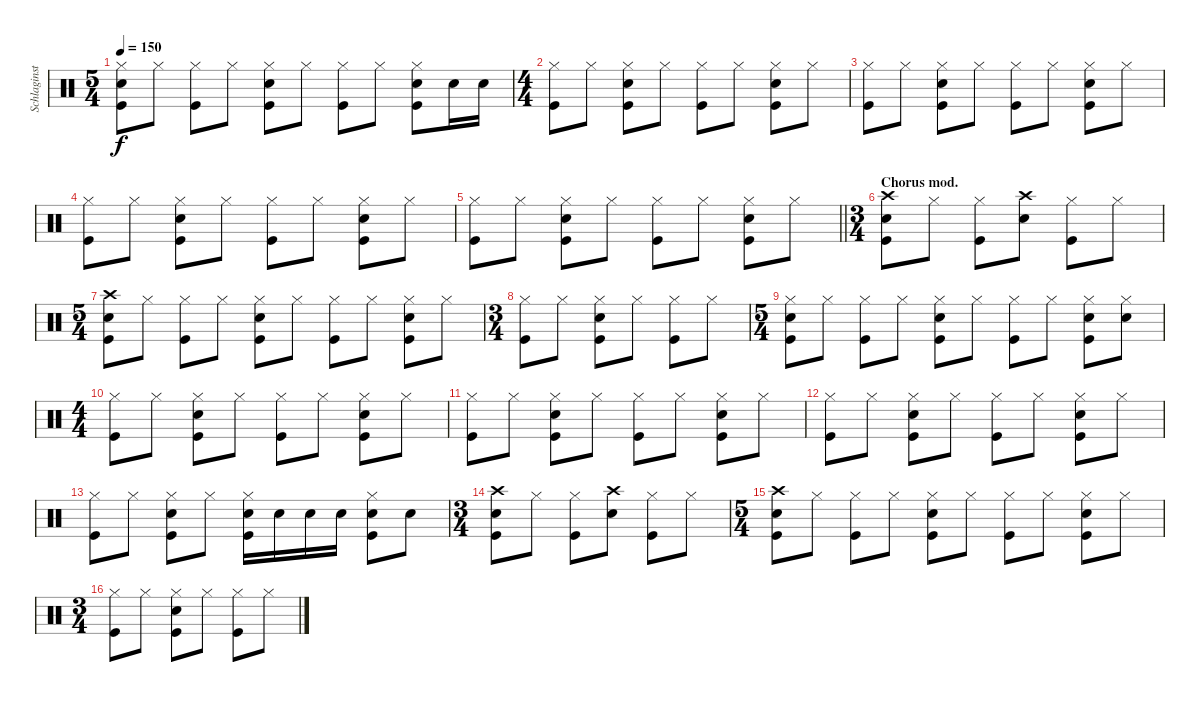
\track ("Schlaginstrumente - Auswahl" "Schlaginst") {instrument percussion}
\staff {score}
\articulation defaults
\ts (5 4)
\tempo 150
\clef neutral
\ks c
("Hi-Hat (closed)" "Kick (hit)" "Snare (hit) 2").8{dy f} "Hi-Hat (closed)".8 ("Kick (hit)" "Hi-Hat (closed)").8 "Hi-Hat (closed)".8 ("Hi-Hat (closed)" "Kick (hit)" "Snare (hit) 2").8 "Hi-Hat (closed)".8 ("Hi-Hat (closed)" "Kick (hit)").8 "Hi-Hat (closed)".8 ("Hi-Hat (closed)" "Kick (hit)" "Snare (hit) 2").8 "Snare (hit) 2".16 "Snare (hit) 2".16 |
\ts (4 4)
("Kick (hit)" "Hi-Hat (closed)").8 "Hi-Hat (closed)".8 ("Hi-Hat (closed)" "Snare (hit) 2" "Kick (hit)").8 "Hi-Hat (closed)".8 ("Hi-Hat (closed)" "Kick (hit)").8 "Hi-Hat (closed)".8 ("Hi-Hat (closed)" "Snare (hit) 2" "Kick (hit)").8 "Hi-Hat (closed)".8 |
("Kick (hit)" "Hi-Hat (closed)").8 "Hi-Hat (closed)".8 ("Hi-Hat (closed)" "Snare (hit) 2" "Kick (hit)").8 "Hi-Hat (closed)".8 ("Hi-Hat (closed)" "Kick (hit)").8 "Hi-Hat (closed)".8 ("Hi-Hat (closed)" "Snare (hit) 2" "Kick (hit)").8 "Hi-Hat (closed)".8 |
("Kick (hit)" "Hi-Hat (closed)").8 "Hi-Hat (closed)".8 ("Hi-Hat (closed)" "Snare (hit) 2" "Kick (hit)").8 "Hi-Hat (closed)".8 ("Hi-Hat (closed)" "Kick (hit)").8 "Hi-Hat (closed)".8 ("Hi-Hat (closed)" "Snare (hit) 2" "Kick (hit)").8 "Hi-Hat (closed)".8 |
\barLineRight lightlight
("Kick (hit)" "Hi-Hat (closed)").8 "Hi-Hat (closed)".8 ("Hi-Hat (closed)" "Snare (hit) 2" "Kick (hit)").8 "Hi-Hat (closed)".8 ("Hi-Hat (closed)" "Kick (hit)").8 "Hi-Hat (closed)".8 ("Hi-Hat (closed)" "Snare (hit) 2" "Kick (hit)").8 "Hi-Hat (closed)".8 |
\ts (3 4)
\section ("" "Chorus mod.")
("Kick (hit)" "Crash high (hit)" "Snare (hit) 2").8 "Hi-Hat (closed)".8 ("Hi-Hat (closed)" "Kick (hit)").8 ("Crash high (hit)" "Snare (hit) 2").8 ("Hi-Hat (closed)" "Kick (hit)").8 "Hi-Hat (closed)".8 |
\ts (5 4)
("Crash high (hit)" "Snare (hit) 2" "Kick (hit)").8 "Hi-Hat (closed)".8 ("Kick (hit)" "Hi-Hat (closed)").8 "Hi-Hat (closed)".8 ("Hi-Hat (closed)" "Kick (hit)" "Snare (hit) 2").8 "Hi-Hat (closed)".8 ("Hi-Hat (closed)" "Kick (hit)").8 "Hi-Hat (closed)".8 ("Hi-Hat (closed)" "Kick (hit)" "Snare (hit) 2").8 "Hi-Hat (closed)".8 |
\ts (3 4)
("Kick (hit)" "Hi-Hat (closed)").8 "Hi-Hat (closed)".8 ("Hi-Hat (closed)" "Kick (hit)" "Snare (hit) 2").8 "Hi-Hat (closed)".8 ("Hi-Hat (closed)" "Kick (hit)").8 "Hi-Hat (closed)".8 |
\ts (5 4)
("Hi-Hat (closed)" "Kick (hit)" "Snare (hit) 2").8 "Hi-Hat (closed)".8 ("Kick (hit)" "Hi-Hat (closed)").8 "Hi-Hat (closed)".8 ("Hi-Hat (closed)" "Kick (hit)" "Snare (hit) 2").8 "Hi-Hat (closed)".8 ("Hi-Hat (closed)" "Kick (hit)").8 "Hi-Hat (closed)".8 ("Hi-Hat (closed)" "Kick (hit)" "Snare (hit) 2").8 ("Snare (hit) 2" "Hi-Hat (closed)").8 |
\ts (4 4)
("Kick (hit)" "Hi-Hat (closed)").8 "Hi-Hat (closed)".8 ("Hi-Hat (closed)" "Snare (hit) 2" "Kick (hit)").8 "Hi-Hat (closed)".8 ("Hi-Hat (closed)" "Kick (hit)").8 "Hi-Hat (closed)".8 ("Hi-Hat (closed)" "Snare (hit) 2" "Kick (hit)").8 "Hi-Hat (closed)".8 |
("Kick (hit)" "Hi-Hat (closed)").8 "Hi-Hat (closed)".8 ("Hi-Hat (closed)" "Snare (hit) 2" "Kick (hit)").8 "Hi-Hat (closed)".8 ("Hi-Hat (closed)" "Kick (hit)").8 "Hi-Hat (closed)".8 ("Hi-Hat (closed)" "Snare (hit) 2" "Kick (hit)").8 "Hi-Hat (closed)".8 |
("Kick (hit)" "Hi-Hat (closed)").8 "Hi-Hat (closed)".8 ("Hi-Hat (closed)" "Snare (hit) 2" "Kick (hit)").8 "Hi-Hat (closed)".8 ("Hi-Hat (closed)" "Kick (hit)").8 "Hi-Hat (closed)".8 ("Hi-Hat (closed)" "Snare (hit) 2" "Kick (hit)").8 "Hi-Hat (closed)".8 |
("Kick (hit)" "Hi-Hat (closed)").8 "Hi-Hat (closed)".8 ("Hi-Hat (closed)" "Snare (hit) 2" "Kick (hit)").8 "Hi-Hat (closed)".8 ("Snare (hit) 2" "Kick (hit)" "Hi-Hat (closed)").16 "Snare (hit) 2".16 "Snare (hit) 2".16 "Snare (hit) 2".16 ("Snare (hit) 2" "Kick (hit)" "Hi-Hat (closed)").8 "Snare (hit) 2".8 |
\ts (3 4)
("Kick (hit)" "Crash high (hit)" "Snare (hit) 2").8 "Hi-Hat (closed)".8 ("Hi-Hat (closed)" "Kick (hit)").8 ("Crash high (hit)" "Snare (hit) 2").8 ("Hi-Hat (closed)" "Kick (hit)").8 "Hi-Hat (closed)".8 |
\ts (5 4)
("Crash high (hit)" "Snare (hit) 2" "Kick (hit)").8 "Hi-Hat (closed)".8 ("Kick (hit)" "Hi-Hat (closed)").8 "Hi-Hat (closed)".8 ("Hi-Hat (closed)" "Kick (hit)" "Snare (hit) 2").8 "Hi-Hat (closed)".8 ("Hi-Hat (closed)" "Kick (hit)").8 "Hi-Hat (closed)".8 ("Hi-Hat (closed)" "Kick (hit)" "Snare (hit) 2").8 "Hi-Hat (closed)".8 |
\ts (3 4)
("Kick (hit)" "Hi-Hat (closed)").8 "Hi-Hat (closed)".8 ("Hi-Hat (closed)" "Kick (hit)" "Snare (hit) 2").8 "Hi-Hat (closed)".8 ("Hi-Hat (closed)" "Kick (hit)").8 "Hi-Hat (closed)".8
